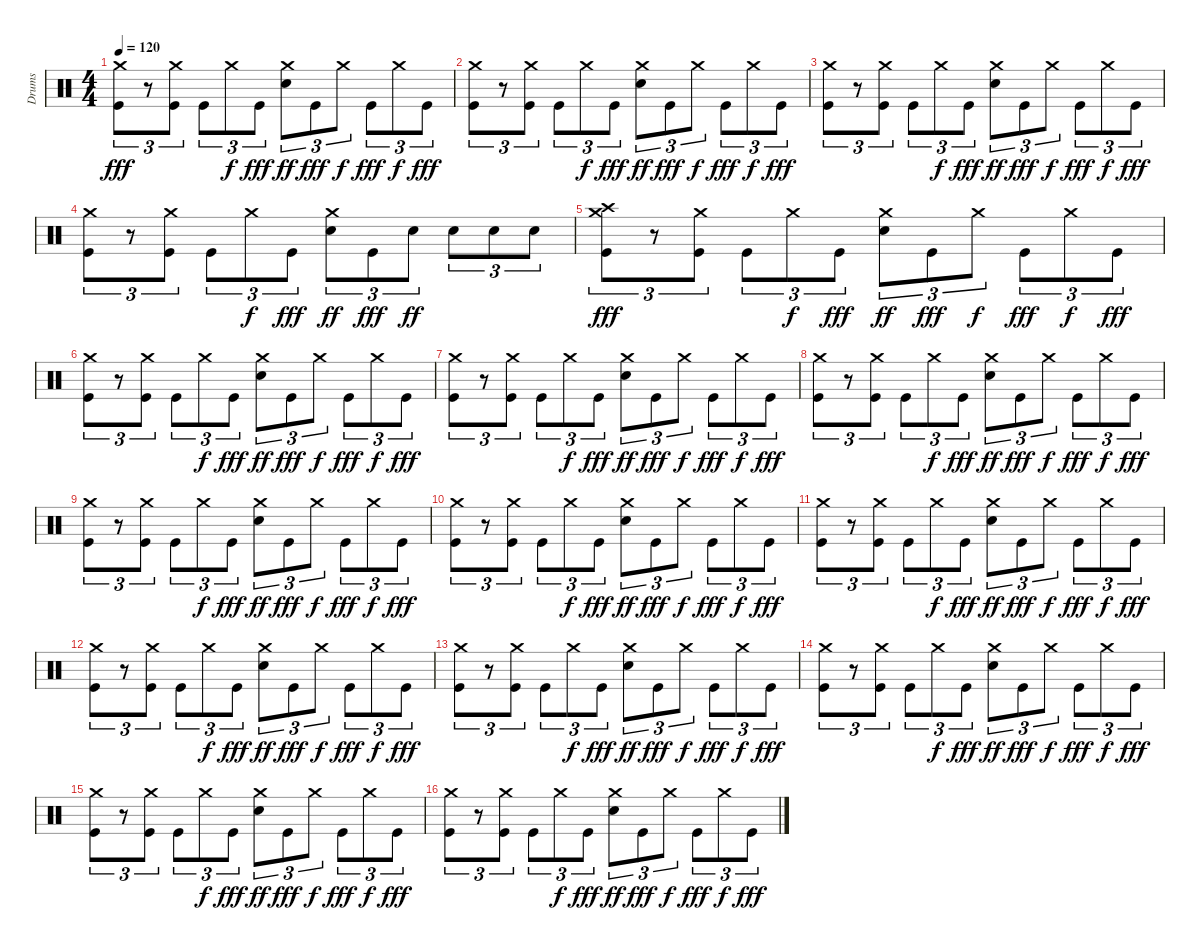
\track ("Drums" "Drums") {instrument percussion}
\staff {score}
\articulation defaults
\ts (4 4)
\tempo 120
\clef neutral
\ks c
("Crash medium (hit)" "Kick (hit)").8{tu (3 2) dy fff} r.8{tu (3 2)} ("Crash medium (hit)" "Kick (hit)").8{tu (3 2)} "Kick (hit)".8{tu (3 2)} "Crash medium (hit)".8{tu (3 2) dy f} "Kick (hit)".8{tu (3 2) dy fff} ("Crash medium (hit)" "Snare (hit) 2").8{tu (3 2) dy ff} "Kick (hit)".8{tu (3 2) dy fff} "Crash medium (hit)".8{tu (3 2) dy f} "Kick (hit)".8{tu (3 2) dy fff} "Crash medium (hit)".8{tu (3 2) dy f} "Kick (hit)".8{tu (3 2) dy fff} |
("Crash medium (hit)" "Kick (hit)").8{tu (3 2)} r.8{tu (3 2)} ("Crash medium (hit)" "Kick (hit)").8{tu (3 2)} "Kick (hit)".8{tu (3 2)} "Crash medium (hit)".8{tu (3 2) dy f} "Kick (hit)".8{tu (3 2) dy fff} ("Crash medium (hit)" "Snare (hit) 2").8{tu (3 2) dy ff} "Kick (hit)".8{tu (3 2) dy fff} "Crash medium (hit)".8{tu (3 2) dy f} "Kick (hit)".8{tu (3 2) dy fff} "Crash medium (hit)".8{tu (3 2) dy f} "Kick (hit)".8{tu (3 2) dy fff} |
("Crash medium (hit)" "Kick (hit)").8{tu (3 2)} r.8{tu (3 2)} ("Crash medium (hit)" "Kick (hit)").8{tu (3 2)} "Kick (hit)".8{tu (3 2)} "Crash medium (hit)".8{tu (3 2) dy f} "Kick (hit)".8{tu (3 2) dy fff} ("Crash medium (hit)" "Snare (hit) 2").8{tu (3 2) dy ff} "Kick (hit)".8{tu (3 2) dy fff} "Crash medium (hit)".8{tu (3 2) dy f} "Kick (hit)".8{tu (3 2) dy fff} "Crash medium (hit)".8{tu (3 2) dy f} "Kick (hit)".8{tu (3 2) dy fff} |
("Crash medium (hit)" "Kick (hit)").8{tu (3 2)} r.8{tu (3 2)} ("Crash medium (hit)" "Kick (hit)").8{tu (3 2)} "Kick (hit)".8{tu (3 2)} "Crash medium (hit)".8{tu (3 2) dy f} "Kick (hit)".8{tu (3 2) dy fff} ("Crash medium (hit)" "Snare (hit) 2").8{tu (3 2) dy ff} "Kick (hit)".8{tu (3 2) dy fff} "Snare (hit) 2".8{tu (3 2) dy ff} "Snare (hit) 2".8{tu (3 2)} "Snare (hit) 2".8{tu (3 2)} "Snare (hit) 2".8{tu (3 2)} |
("Crash high (hit)" "Crash medium (hit)" "Kick (hit)").8{tu (3 2) dy fff} r.8{tu (3 2)} ("Crash medium (hit)" "Kick (hit)").8{tu (3 2)} "Kick (hit)".8{tu (3 2)} "Crash medium (hit)".8{tu (3 2) dy f} "Kick (hit)".8{tu (3 2) dy fff} ("Crash medium (hit)" "Snare (hit) 2").8{tu (3 2) dy ff} "Kick (hit)".8{tu (3 2) dy fff} "Crash medium (hit)".8{tu (3 2) dy f} "Kick (hit)".8{tu (3 2) dy fff} "Crash medium (hit)".8{tu (3 2) dy f} "Kick (hit)".8{tu (3 2) dy fff} |
("Crash medium (hit)" "Kick (hit)").8{tu (3 2)} r.8{tu (3 2)} ("Crash medium (hit)" "Kick (hit)").8{tu (3 2)} "Kick (hit)".8{tu (3 2)} "Crash medium (hit)".8{tu (3 2) dy f} "Kick (hit)".8{tu (3 2) dy fff} ("Crash medium (hit)" "Snare (hit) 2").8{tu (3 2) dy ff} "Kick (hit)".8{tu (3 2) dy fff} "Crash medium (hit)".8{tu (3 2) dy f} "Kick (hit)".8{tu (3 2) dy fff} "Crash medium (hit)".8{tu (3 2) dy f} "Kick (hit)".8{tu (3 2) dy fff} |
("Crash medium (hit)" "Kick (hit)").8{tu (3 2)} r.8{tu (3 2)} ("Crash medium (hit)" "Kick (hit)").8{tu (3 2)} "Kick (hit)".8{tu (3 2)} "Crash medium (hit)".8{tu (3 2) dy f} "Kick (hit)".8{tu (3 2) dy fff} ("Crash medium (hit)" "Snare (hit) 2").8{tu (3 2) dy ff} "Kick (hit)".8{tu (3 2) dy fff} "Crash medium (hit)".8{tu (3 2) dy f} "Kick (hit)".8{tu (3 2) dy fff} "Crash medium (hit)".8{tu (3 2) dy f} "Kick (hit)".8{tu (3 2) dy fff} |
("Crash medium (hit)" "Kick (hit)").8{tu (3 2)} r.8{tu (3 2)} ("Crash medium (hit)" "Kick (hit)").8{tu (3 2)} "Kick (hit)".8{tu (3 2)} "Crash medium (hit)".8{tu (3 2) dy f} "Kick (hit)".8{tu (3 2) dy fff} ("Crash medium (hit)" "Snare (hit) 2").8{tu (3 2) dy ff} "Kick (hit)".8{tu (3 2) dy fff} "Crash medium (hit)".8{tu (3 2) dy f} "Kick (hit)".8{tu (3 2) dy fff} "Crash medium (hit)".8{tu (3 2) dy f} "Kick (hit)".8{tu (3 2) dy fff} |
("Crash medium (hit)" "Kick (hit)").8{tu (3 2)} r.8{tu (3 2)} ("Crash medium (hit)" "Kick (hit)").8{tu (3 2)} "Kick (hit)".8{tu (3 2)} "Crash medium (hit)".8{tu (3 2) dy f} "Kick (hit)".8{tu (3 2) dy fff} ("Crash medium (hit)" "Snare (hit) 2").8{tu (3 2) dy ff} "Kick (hit)".8{tu (3 2) dy fff} "Crash medium (hit)".8{tu (3 2) dy f} "Kick (hit)".8{tu (3 2) dy fff} "Crash medium (hit)".8{tu (3 2) dy f} "Kick (hit)".8{tu (3 2) dy fff} |
("Crash medium (hit)" "Kick (hit)").8{tu (3 2)} r.8{tu (3 2)} ("Crash medium (hit)" "Kick (hit)").8{tu (3 2)} "Kick (hit)".8{tu (3 2)} "Crash medium (hit)".8{tu (3 2) dy f} "Kick (hit)".8{tu (3 2) dy fff} ("Crash medium (hit)" "Snare (hit) 2").8{tu (3 2) dy ff} "Kick (hit)".8{tu (3 2) dy fff} "Crash medium (hit)".8{tu (3 2) dy f} "Kick (hit)".8{tu (3 2) dy fff} "Crash medium (hit)".8{tu (3 2) dy f} "Kick (hit)".8{tu (3 2) dy fff} |
("Crash medium (hit)" "Kick (hit)").8{tu (3 2)} r.8{tu (3 2)} ("Crash medium (hit)" "Kick (hit)").8{tu (3 2)} "Kick (hit)".8{tu (3 2)} "Crash medium (hit)".8{tu (3 2) dy f} "Kick (hit)".8{tu (3 2) dy fff} ("Crash medium (hit)" "Snare (hit) 2").8{tu (3 2) dy ff} "Kick (hit)".8{tu (3 2) dy fff} "Crash medium (hit)".8{tu (3 2) dy f} "Kick (hit)".8{tu (3 2) dy fff} "Crash medium (hit)".8{tu (3 2) dy f} "Kick (hit)".8{tu (3 2) dy fff} |
("Crash medium (hit)" "Kick (hit)").8{tu (3 2)} r.8{tu (3 2)} ("Crash medium (hit)" "Kick (hit)").8{tu (3 2)} "Kick (hit)".8{tu (3 2)} "Crash medium (hit)".8{tu (3 2) dy f} "Kick (hit)".8{tu (3 2) dy fff} ("Crash medium (hit)" "Snare (hit) 2").8{tu (3 2) dy ff} "Kick (hit)".8{tu (3 2) dy fff} "Crash medium (hit)".8{tu (3 2) dy f} "Kick (hit)".8{tu (3 2) dy fff} "Crash medium (hit)".8{tu (3 2) dy f} "Kick (hit)".8{tu (3 2) dy fff} |
("Crash medium (hit)" "Kick (hit)").8{tu (3 2)} r.8{tu (3 2)} ("Crash medium (hit)" "Kick (hit)").8{tu (3 2)} "Kick (hit)".8{tu (3 2)} "Crash medium (hit)".8{tu (3 2) dy f} "Kick (hit)".8{tu (3 2) dy fff} ("Crash medium (hit)" "Snare (hit) 2").8{tu (3 2) dy ff} "Kick (hit)".8{tu (3 2) dy fff} "Crash medium (hit)".8{tu (3 2) dy f} "Kick (hit)".8{tu (3 2) dy fff} "Crash medium (hit)".8{tu (3 2) dy f} "Kick (hit)".8{tu (3 2) dy fff} |
("Crash medium (hit)" "Kick (hit)").8{tu (3 2)} r.8{tu (3 2)} ("Crash medium (hit)" "Kick (hit)").8{tu (3 2)} "Kick (hit)".8{tu (3 2)} "Crash medium (hit)".8{tu (3 2) dy f} "Kick (hit)".8{tu (3 2) dy fff} ("Crash medium (hit)" "Snare (hit) 2").8{tu (3 2) dy ff} "Kick (hit)".8{tu (3 2) dy fff} "Crash medium (hit)".8{tu (3 2) dy f} "Kick (hit)".8{tu (3 2) dy fff} "Crash medium (hit)".8{tu (3 2) dy f} "Kick (hit)".8{tu (3 2) dy fff} |
("Crash medium (hit)" "Kick (hit)").8{tu (3 2)} r.8{tu (3 2)} ("Crash medium (hit)" "Kick (hit)").8{tu (3 2)} "Kick (hit)".8{tu (3 2)} "Crash medium (hit)".8{tu (3 2) dy f} "Kick (hit)".8{tu (3 2) dy fff} ("Crash medium (hit)" "Snare (hit) 2").8{tu (3 2) dy ff} "Kick (hit)".8{tu (3 2) dy fff} "Crash medium (hit)".8{tu (3 2) dy f} "Kick (hit)".8{tu (3 2) dy fff} "Crash medium (hit)".8{tu (3 2) dy f} "Kick (hit)".8{tu (3 2) dy fff} |
("Crash medium (hit)" "Kick (hit)").8{tu (3 2)} r.8{tu (3 2)} ("Crash medium (hit)" "Kick (hit)").8{tu (3 2)} "Kick (hit)".8{tu (3 2)} "Crash medium (hit)".8{tu (3 2) dy f} "Kick (hit)".8{tu (3 2) dy fff} ("Crash medium (hit)" "Snare (hit) 2").8{tu (3 2) dy ff} "Kick (hit)".8{tu (3 2) dy fff} "Crash medium (hit)".8{tu (3 2) dy f} "Kick (hit)".8{tu (3 2) dy fff} "Crash medium (hit)".8{tu (3 2) dy f} "Kick (hit)".8{tu (3 2) dy fff}
